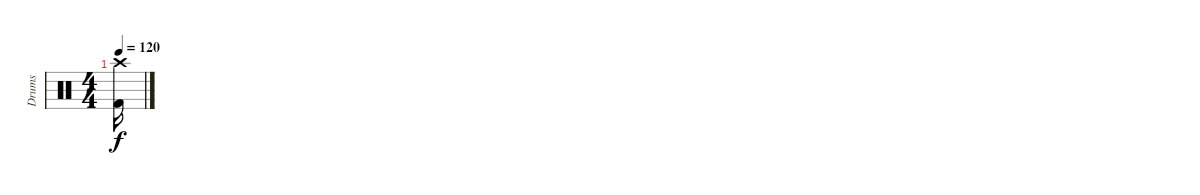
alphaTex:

\track ("Drums" "Drums") {instrument percussion}
\staff {score}
\articulation defaults
\ts (4 4)
\tempo 120
\clef neutral
\ks c
("Crash high (hit)" "Kick (hit) 2").16{dy f}
